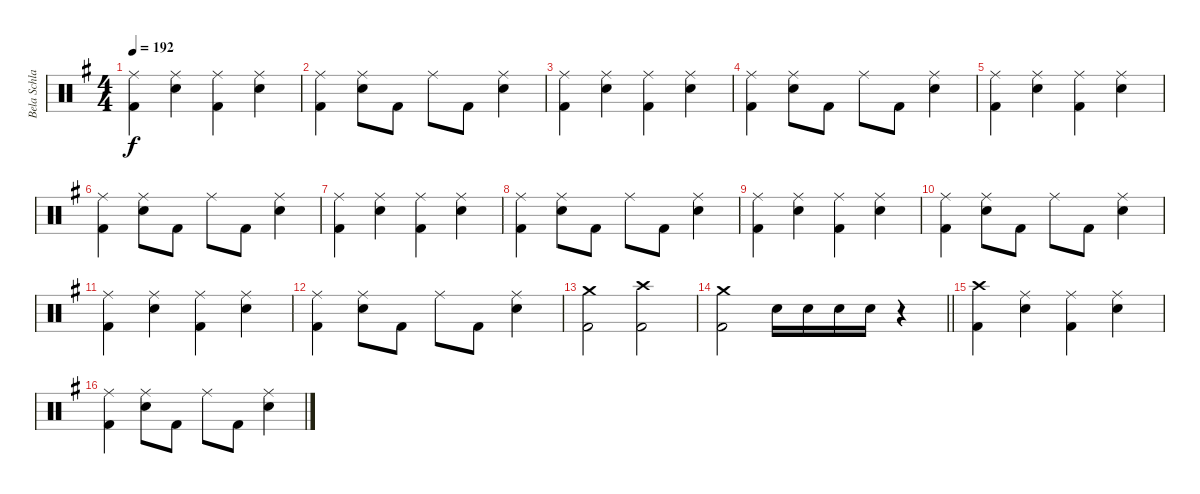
\track ("Bela Schlagzeug" "Bela Schla") {instrument percussion}
\staff {score}
\articulation defaults
\ts (4 4)
\tempo 192
\clef neutral
\ks g
("Ride (middle)" "Kick (hit) 2").4{dy f} ("Ride (middle)" "Electric Snare (hit)").4 ("Ride (middle)" "Kick (hit) 2").4 ("Ride (middle)" "Electric Snare (hit)").4 |
("Ride (middle)" "Kick (hit) 2").4 ("Ride (middle)" "Electric Snare (hit)").8 "Kick (hit) 2".8 "Ride (middle)".8 "Kick (hit) 2".8 ("Ride (middle)" "Electric Snare (hit)").4 |
("Ride (middle)" "Kick (hit) 2").4 ("Ride (middle)" "Electric Snare (hit)").4 ("Ride (middle)" "Kick (hit) 2").4 ("Ride (middle)" "Electric Snare (hit)").4 |
("Ride (middle)" "Kick (hit) 2").4 ("Ride (middle)" "Electric Snare (hit)").8 "Kick (hit) 2".8 "Ride (middle)".8 "Kick (hit) 2".8 ("Ride (middle)" "Electric Snare (hit)").4 |
("Ride (middle)" "Kick (hit) 2").4 ("Ride (middle)" "Electric Snare (hit)").4 ("Ride (middle)" "Kick (hit) 2").4 ("Ride (middle)" "Electric Snare (hit)").4 |
("Ride (middle)" "Kick (hit) 2").4 ("Ride (middle)" "Electric Snare (hit)").8 "Kick (hit) 2".8 "Ride (middle)".8 "Kick (hit) 2".8 ("Ride (middle)" "Electric Snare (hit)").4 |
("Ride (middle)" "Kick (hit) 2").4 ("Ride (middle)" "Electric Snare (hit)").4 ("Ride (middle)" "Kick (hit) 2").4 ("Ride (middle)" "Electric Snare (hit)").4 |
("Ride (middle)" "Kick (hit) 2").4 ("Ride (middle)" "Electric Snare (hit)").8 "Kick (hit) 2".8 "Ride (middle)".8 "Kick (hit) 2".8 ("Ride (middle)" "Electric Snare (hit)").4 |
("Ride (middle)" "Kick (hit) 2").4 ("Ride (middle)" "Electric Snare (hit)").4 ("Ride (middle)" "Kick (hit) 2").4 ("Ride (middle)" "Electric Snare (hit)").4 |
("Ride (middle)" "Kick (hit) 2").4 ("Ride (middle)" "Electric Snare (hit)").8 "Kick (hit) 2".8 "Ride (middle)".8 "Kick (hit) 2".8 ("Ride (middle)" "Electric Snare (hit)").4 |
("Ride (middle)" "Kick (hit) 2").4 ("Ride (middle)" "Electric Snare (hit)").4 ("Ride (middle)" "Kick (hit) 2").4 ("Ride (middle)" "Electric Snare (hit)").4 |
("Ride (middle)" "Kick (hit) 2").4 ("Ride (middle)" "Electric Snare (hit)").8 "Kick (hit) 2".8 "Ride (middle)".8 "Kick (hit) 2".8 ("Ride (middle)" "Electric Snare (hit)").4 |
("Crash medium (hit)" "Kick (hit) 2").2 ("Crash high (hit)" "Kick (hit) 2").2 |
\barLineRight lightlight
("Crash medium (hit)" "Kick (hit) 2").2 "Electric Snare (hit)".16 "Electric Snare (hit)".16 "Electric Snare (hit)".16 "Electric Snare (hit)".16 r.4 |
("Crash high (hit)" "Kick (hit) 2").4 ("Ride (middle)" "Electric Snare (hit)").4 ("Ride (middle)" "Kick (hit) 2").4 ("Ride (middle)" "Electric Snare (hit)").4 |
("Ride (middle)" "Kick (hit) 2").4 ("Ride (middle)" "Electric Snare (hit)").8 "Kick (hit) 2".8 "Ride (middle)".8 "Kick (hit) 2".8 ("Ride (middle)" "Electric Snare (hit)").4
